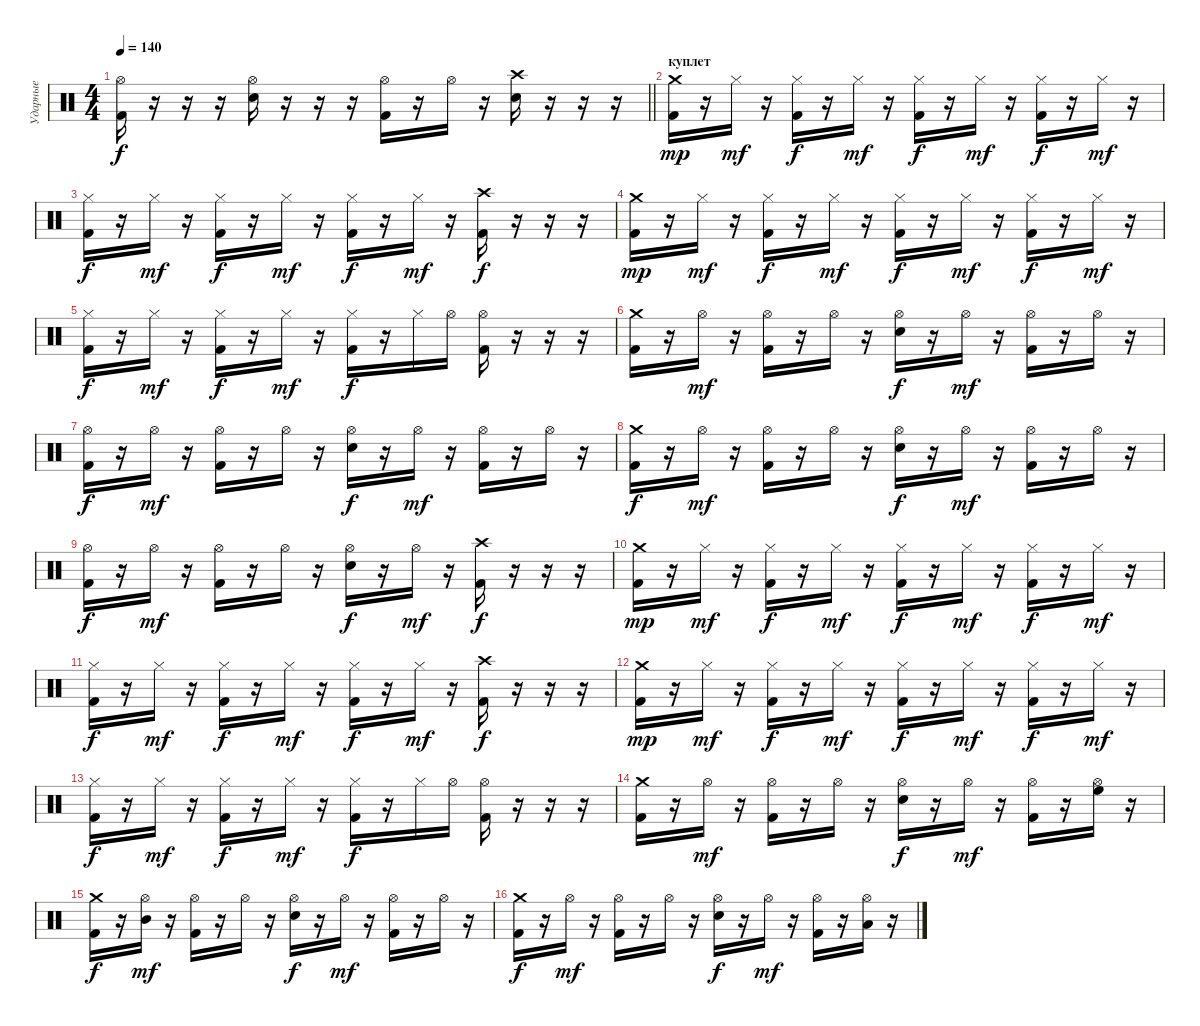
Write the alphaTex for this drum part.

\track ("Ударные" "Ударные") {instrument percussion}
\staff {score}
\articulation defaults
\ts (4 4)
\tempo 140
\clef neutral
\barLineRight lightlight
\ks c
("Hi-Hat (open)" "Kick (hit) 2").16{dy f} r.16 r.16 r.16 ("Hi-Hat (open)" "Electric Snare (hit)").16 r.16 r.16 r.16 ("Hi-Hat (open)" "Kick (hit) 2").16 r.16 "Hi-Hat (open)".16 r.16 ("Crash high (hit)" "Electric Snare (hit)").16 r.16 r.16 r.16 |
\section ("" "куплет")
("Crash medium (hit)" "Kick (hit) 2").16{dy mp} r.16 "Hi-Hat (closed)".16{dy mf} r.16 ("Hi-Hat (closed)" "Kick (hit) 2").16{dy f} r.16 "Hi-Hat (closed)".16{dy mf} r.16 ("Hi-Hat (closed)" "Kick (hit) 2").16{dy f} r.16 "Hi-Hat (closed)".16{dy mf} r.16 ("Hi-Hat (closed)" "Kick (hit) 2").16{dy f} r.16 "Hi-Hat (closed)".16{dy mf} r.16 |
("Hi-Hat (closed)" "Kick (hit) 2").16{dy f} r.16 "Hi-Hat (closed)".16{dy mf} r.16 ("Hi-Hat (closed)" "Kick (hit) 2").16{dy f} r.16 "Hi-Hat (closed)".16{dy mf} r.16 ("Hi-Hat (closed)" "Kick (hit) 2").16{dy f} r.16 "Hi-Hat (closed)".16{dy mf} r.16 ("Crash high (hit)" "Kick (hit) 2").16{dy f} r.16 r.16 r.16 |
("Crash medium (hit)" "Kick (hit) 2").16{dy mp} r.16 "Hi-Hat (closed)".16{dy mf} r.16 ("Hi-Hat (closed)" "Kick (hit) 2").16{dy f} r.16 "Hi-Hat (closed)".16{dy mf} r.16 ("Hi-Hat (closed)" "Kick (hit) 2").16{dy f} r.16 "Hi-Hat (closed)".16{dy mf} r.16 ("Hi-Hat (closed)" "Kick (hit) 2").16{dy f} r.16 "Hi-Hat (closed)".16{dy mf} r.16 |
("Hi-Hat (closed)" "Kick (hit) 2").16{dy f} r.16 "Hi-Hat (closed)".16{dy mf} r.16 ("Hi-Hat (closed)" "Kick (hit) 2").16{dy f} r.16 "Hi-Hat (closed)".16{dy mf} r.16 ("Hi-Hat (closed)" "Kick (hit) 2").16{dy f} r.16 "Hi-Hat (closed)".16 "Hi-Hat (open)".16 ("Hi-Hat (open)" "Kick (hit) 2").16 r.16 r.16 r.16 |
("Crash medium (hit)" "Kick (hit) 2").16 r.16 "Hi-Hat (open)".16{dy mf} r.16 ("Hi-Hat (open)" "Kick (hit) 2").16 r.16 "Hi-Hat (open)".16 r.16 ("Hi-Hat (open)" "Electric Snare (hit)").16{dy f} r.16 "Hi-Hat (open)".16{dy mf} r.16 ("Hi-Hat (open)" "Kick (hit) 2").16 r.16 "Hi-Hat (open)".16 r.16 |
("Hi-Hat (open)" "Kick (hit) 2").16{dy f} r.16 "Hi-Hat (open)".16{dy mf} r.16 ("Hi-Hat (open)" "Kick (hit) 2").16 r.16 "Hi-Hat (open)".16 r.16 ("Hi-Hat (open)" "Electric Snare (hit)").16{dy f} r.16 "Hi-Hat (open)".16{dy mf} r.16 ("Hi-Hat (open)" "Kick (hit) 2").16 r.16 "Hi-Hat (open)".16 r.16 |
("Crash medium (hit)" "Kick (hit) 2").16{dy f} r.16 "Hi-Hat (open)".16{dy mf} r.16 ("Hi-Hat (open)" "Kick (hit) 2").16 r.16 "Hi-Hat (open)".16 r.16 ("Hi-Hat (open)" "Electric Snare (hit)").16{dy f} r.16 "Hi-Hat (open)".16{dy mf} r.16 ("Hi-Hat (open)" "Kick (hit) 2").16 r.16 "Hi-Hat (open)".16 r.16 |
("Hi-Hat (open)" "Kick (hit) 2").16{dy f} r.16 "Hi-Hat (open)".16{dy mf} r.16 ("Hi-Hat (open)" "Kick (hit) 2").16 r.16 "Hi-Hat (open)".16 r.16 ("Hi-Hat (open)" "Electric Snare (hit)").16{dy f} r.16 "Hi-Hat (open)".16{dy mf} r.16 ("Crash high (hit)" "Kick (hit) 2").16{dy f} r.16 r.16 r.16 |
("Crash medium (hit)" "Kick (hit) 2").16{dy mp} r.16 "Hi-Hat (closed)".16{dy mf} r.16 ("Hi-Hat (closed)" "Kick (hit) 2").16{dy f} r.16 "Hi-Hat (closed)".16{dy mf} r.16 ("Hi-Hat (closed)" "Kick (hit) 2").16{dy f} r.16 "Hi-Hat (closed)".16{dy mf} r.16 ("Hi-Hat (closed)" "Kick (hit) 2").16{dy f} r.16 "Hi-Hat (closed)".16{dy mf} r.16 |
("Hi-Hat (closed)" "Kick (hit) 2").16{dy f} r.16 "Hi-Hat (closed)".16{dy mf} r.16 ("Hi-Hat (closed)" "Kick (hit) 2").16{dy f} r.16 "Hi-Hat (closed)".16{dy mf} r.16 ("Hi-Hat (closed)" "Kick (hit) 2").16{dy f} r.16 "Hi-Hat (closed)".16{dy mf} r.16 ("Crash high (hit)" "Kick (hit) 2").16{dy f} r.16 r.16 r.16 |
("Crash medium (hit)" "Kick (hit) 2").16{dy mp} r.16 "Hi-Hat (closed)".16{dy mf} r.16 ("Hi-Hat (closed)" "Kick (hit) 2").16{dy f} r.16 "Hi-Hat (closed)".16{dy mf} r.16 ("Hi-Hat (closed)" "Kick (hit) 2").16{dy f} r.16 "Hi-Hat (closed)".16{dy mf} r.16 ("Hi-Hat (closed)" "Kick (hit) 2").16{dy f} r.16 "Hi-Hat (closed)".16{dy mf} r.16 |
("Hi-Hat (closed)" "Kick (hit) 2").16{dy f} r.16 "Hi-Hat (closed)".16{dy mf} r.16 ("Hi-Hat (closed)" "Kick (hit) 2").16{dy f} r.16 "Hi-Hat (closed)".16{dy mf} r.16 ("Hi-Hat (closed)" "Kick (hit) 2").16{dy f} r.16 "Hi-Hat (closed)".16 "Hi-Hat (open)".16 ("Hi-Hat (open)" "Kick (hit) 2").16 r.16 r.16 r.16 |
("Crash medium (hit)" "Kick (hit) 2").16 r.16 "Hi-Hat (open)".16{dy mf} r.16 ("Hi-Hat (open)" "Kick (hit) 2").16 r.16 "Hi-Hat (open)".16 r.16 ("Hi-Hat (open)" "Electric Snare (hit)").16{dy f} r.16 "Hi-Hat (open)".16{dy mf} r.16 ("Hi-Hat (open)" "Kick (hit) 2").16 r.16 ("Hi-Hat (open)" "High Floor Tom (hit)").16 r.16 |
("Crash medium (hit)" "Kick (hit) 2").16{dy f} r.16 ("Hi-Hat (open)" "Mid Tom (hit)").16{dy mf} r.16 ("Hi-Hat (open)" "Kick (hit) 2").16 r.16 "Hi-Hat (open)".16 r.16 ("Hi-Hat (open)" "Electric Snare (hit)").16{dy f} r.16 "Hi-Hat (open)".16{dy mf} r.16 ("Hi-Hat (open)" "Kick (hit) 2").16 r.16 "Hi-Hat (open)".16 r.16 |
("Crash medium (hit)" "Kick (hit) 2").16{dy f} r.16 "Hi-Hat (open)".16{dy mf} r.16 ("Hi-Hat (open)" "Kick (hit) 2").16 r.16 "Hi-Hat (open)".16 r.16 ("Hi-Hat (open)" "Electric Snare (hit)").16{dy f} r.16 "Hi-Hat (open)".16{dy mf} r.16 ("Hi-Hat (open)" "Kick (hit) 2").16 r.16 ("Hi-Hat (open)" "Low Tom (hit)").16 r.16
